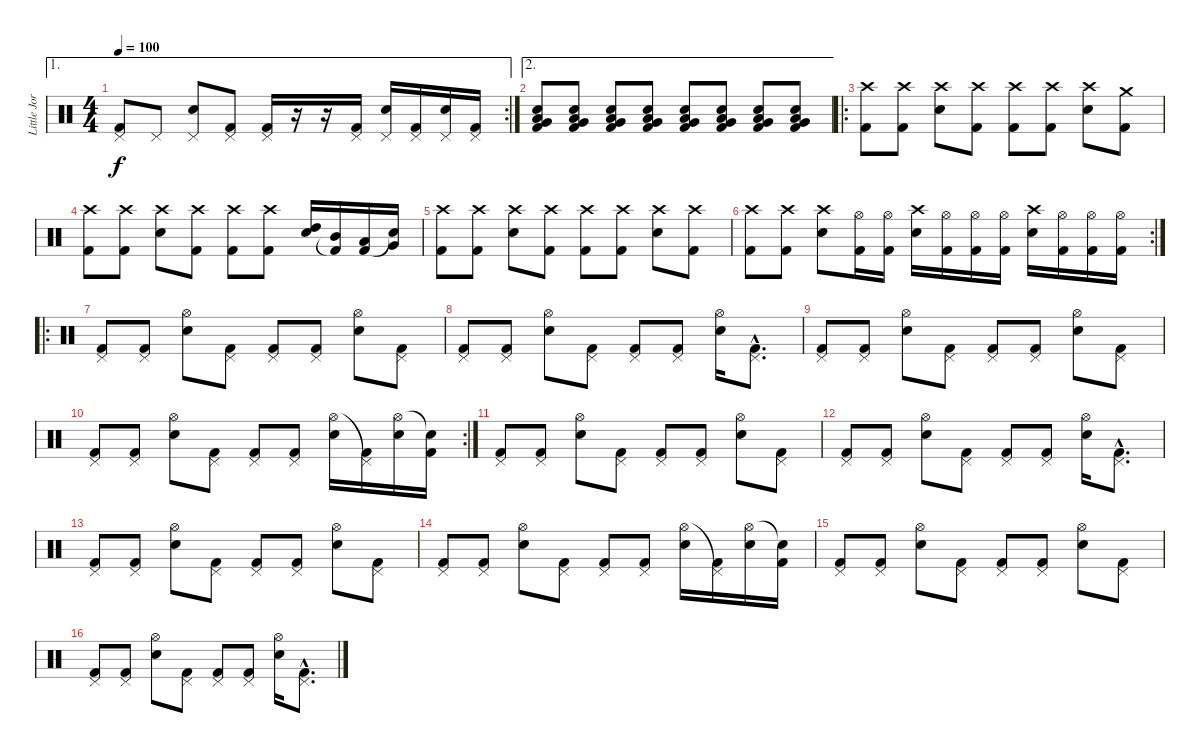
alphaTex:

\track ("Little JorDiSoN" "Little Jor") {instrument percussion}
\staff {score}
\articulation defaults
\ae 1
\rc 2
\ts (4 4)
\tempo 100
\clef neutral
\ks c
("Pedal Hi-Hat (hit)" "Kick (hit) 2").8{dy f} "Pedal Hi-Hat (hit)".8 ("Pedal Hi-Hat (hit)" "Electric Snare (hit)").8 ("Pedal Hi-Hat (hit)" "Kick (hit) 2").8 ("Pedal Hi-Hat (hit)" "Kick (hit) 2").16 r.16 r.16 ("Pedal Hi-Hat (hit)" "Kick (hit) 2").16 ("Pedal Hi-Hat (hit)" "Electric Snare (hit)").16 ("Pedal Hi-Hat (hit)" "Kick (hit) 2").16 ("Pedal Hi-Hat (hit)" "Electric Snare (hit)").16 ("Pedal Hi-Hat (hit)" "Kick (hit) 2").16 |
\ae 2
("Kick (hit) 2" "Very Low Tom (hit)" "Low Floor Tom (hit)" "Electric Snare (hit)").8 ("Kick (hit) 2" "Very Low Tom (hit)" "Low Floor Tom (hit)" "Electric Snare (hit)").8 ("Kick (hit) 2" "Very Low Tom (hit)" "Low Floor Tom (hit)" "Electric Snare (hit)").8 ("Kick (hit) 2" "Very Low Tom (hit)" "Low Floor Tom (hit)" "Electric Snare (hit)").8 ("Kick (hit) 2" "Very Low Tom (hit)" "Low Floor Tom (hit)" "Electric Snare (hit)").8 ("Kick (hit) 2" "Very Low Tom (hit)" "Low Floor Tom (hit)" "Electric Snare (hit)").8 ("Kick (hit) 2" "Very Low Tom (hit)" "Low Floor Tom (hit)" "Electric Snare (hit)").8 ("Kick (hit) 2" "Very Low Tom (hit)" "Low Floor Tom (hit)" "Electric Snare (hit)").8 |
\ro
("Crash high (hit)" "Kick (hit) 2").8 ("Crash high (hit)" "Kick (hit) 2").8 ("Crash high (hit)" "Electric Snare (hit)").8 ("Crash high (hit)" "Kick (hit) 2").8 ("Crash high (hit)" "Kick (hit) 2").8 ("Crash high (hit)" "Kick (hit) 2").8 ("Crash high (hit)" "Electric Snare (hit)").8 ("Crash medium (hit)" "Kick (hit) 2").8 |
("Crash high (hit)" "Kick (hit) 2").8 ("Crash high (hit)" "Kick (hit) 2").8 ("Crash high (hit)" "Electric Snare (hit)").8 ("Crash high (hit)" "Kick (hit) 2").8 ("Crash high (hit)" "Kick (hit) 2").8 ("Crash high (hit)" "Kick (hit) 2").8 ("High Tom (hit)" "Electric Snare (hit)").16 ("Mid Tom (hit)" "Kick (hit) 2"{t}).16 ("Low Tom (hit)" "Kick (hit) 2").16 ("Very Low Tom (hit)" "Snare (hit)"{t}).16 |
("Crash high (hit)" "Kick (hit) 2").8 ("Crash high (hit)" "Kick (hit) 2").8 ("Crash high (hit)" "Electric Snare (hit)").8 ("Crash high (hit)" "Kick (hit) 2").8 ("Crash high (hit)" "Kick (hit) 2").8 ("Crash high (hit)" "Kick (hit) 2").8 ("Crash high (hit)" "Electric Snare (hit)").8 ("Crash high (hit)" "Kick (hit) 2").8 |
\rc 2
("Crash high (hit)" "Kick (hit) 2").8 ("Crash high (hit)" "Kick (hit) 2").8 ("Crash high (hit)" "Electric Snare (hit)").8 ("Hi-Hat (open)" "Kick (hit) 2").16 ("Hi-Hat (open)" "Kick (hit) 2").16 ("Crash high (hit)" "Electric Snare (hit)").16 ("Hi-Hat (open)" "Kick (hit) 2").16 ("Hi-Hat (open)" "Kick (hit) 2").16 ("Hi-Hat (open)" "Kick (hit) 2").16 ("Crash high (hit)" "Electric Snare (hit)").16 ("Hi-Hat (open)" "Kick (hit) 2").16 ("Hi-Hat (open)" "Kick (hit) 2").16 ("Hi-Hat (open)" "Kick (hit) 2").16 |
\ro
("Pedal Hi-Hat (hit)" "Kick (hit) 2").8 ("Pedal Hi-Hat (hit)" "Kick (hit) 2").8 ("Hi-Hat (open)" "Electric Snare (hit)").8 ("Pedal Hi-Hat (hit)" "Kick (hit) 2").8 ("Pedal Hi-Hat (hit)" "Kick (hit) 2").8 ("Pedal Hi-Hat (hit)" "Kick (hit) 2").8 ("Hi-Hat (open)" "Electric Snare (hit)").8 ("Pedal Hi-Hat (hit)" "Kick (hit) 2").8 |
("Pedal Hi-Hat (hit)" "Kick (hit) 2").8 ("Pedal Hi-Hat (hit)" "Kick (hit) 2").8 ("Hi-Hat (open)" "Electric Snare (hit)").8 ("Pedal Hi-Hat (hit)" "Kick (hit) 2").8 ("Pedal Hi-Hat (hit)" "Kick (hit) 2").8 ("Pedal Hi-Hat (hit)" "Kick (hit) 2").8 ("Hi-Hat (open)" "Electric Snare (hit)").16 ("Pedal Hi-Hat (hit)"{hac} "Kick (hit) 2"{hac}).8{d} |
("Pedal Hi-Hat (hit)" "Kick (hit) 2").8 ("Pedal Hi-Hat (hit)" "Kick (hit) 2").8 ("Hi-Hat (open)" "Electric Snare (hit)").8 ("Pedal Hi-Hat (hit)" "Kick (hit) 2").8 ("Pedal Hi-Hat (hit)" "Kick (hit) 2").8 ("Pedal Hi-Hat (hit)" "Kick (hit) 2").8 ("Hi-Hat (open)" "Electric Snare (hit)").8 ("Pedal Hi-Hat (hit)" "Kick (hit) 2").8 |
\rc 2
("Pedal Hi-Hat (hit)" "Kick (hit) 2").8 ("Pedal Hi-Hat (hit)" "Kick (hit) 2").8 ("Hi-Hat (open)" "Electric Snare (hit)").8 ("Pedal Hi-Hat (hit)" "Kick (hit) 2").8 ("Pedal Hi-Hat (hit)" "Kick (hit) 2").8 ("Pedal Hi-Hat (hit)" "Kick (hit) 2").8 ("Hi-Hat (open)" "Electric Snare (hit)").16 ("Pedal Hi-Hat (hit)"{t} "Kick (hit) 2").16 ("Hi-Hat (open)" "Electric Snare (hit)").16 ("Snare (hit)"{t} "Kick (hit) 2").16 |
("Pedal Hi-Hat (hit)" "Kick (hit) 2").8 ("Pedal Hi-Hat (hit)" "Kick (hit) 2").8 ("Hi-Hat (open)" "Electric Snare (hit)").8 ("Pedal Hi-Hat (hit)" "Kick (hit) 2").8 ("Pedal Hi-Hat (hit)" "Kick (hit) 2").8 ("Pedal Hi-Hat (hit)" "Kick (hit) 2").8 ("Hi-Hat (open)" "Electric Snare (hit)").8 ("Pedal Hi-Hat (hit)" "Kick (hit) 2").8 |
("Pedal Hi-Hat (hit)" "Kick (hit) 2").8 ("Pedal Hi-Hat (hit)" "Kick (hit) 2").8 ("Hi-Hat (open)" "Electric Snare (hit)").8 ("Pedal Hi-Hat (hit)" "Kick (hit) 2").8 ("Pedal Hi-Hat (hit)" "Kick (hit) 2").8 ("Pedal Hi-Hat (hit)" "Kick (hit) 2").8 ("Hi-Hat (open)" "Electric Snare (hit)").16 ("Pedal Hi-Hat (hit)"{hac} "Kick (hit) 2"{hac}).8{d} |
("Pedal Hi-Hat (hit)" "Kick (hit) 2").8 ("Pedal Hi-Hat (hit)" "Kick (hit) 2").8 ("Hi-Hat (open)" "Electric Snare (hit)").8 ("Pedal Hi-Hat (hit)" "Kick (hit) 2").8 ("Pedal Hi-Hat (hit)" "Kick (hit) 2").8 ("Pedal Hi-Hat (hit)" "Kick (hit) 2").8 ("Hi-Hat (open)" "Electric Snare (hit)").8 ("Pedal Hi-Hat (hit)" "Kick (hit) 2").8 |
("Pedal Hi-Hat (hit)" "Kick (hit) 2").8 ("Pedal Hi-Hat (hit)" "Kick (hit) 2").8 ("Hi-Hat (open)" "Electric Snare (hit)").8 ("Pedal Hi-Hat (hit)" "Kick (hit) 2").8 ("Pedal Hi-Hat (hit)" "Kick (hit) 2").8 ("Pedal Hi-Hat (hit)" "Kick (hit) 2").8 ("Hi-Hat (open)" "Electric Snare (hit)").16 ("Pedal Hi-Hat (hit)"{t} "Kick (hit) 2").16 ("Hi-Hat (open)" "Electric Snare (hit)").16 ("Snare (hit)"{t} "Kick (hit) 2").16 |
("Pedal Hi-Hat (hit)" "Kick (hit) 2").8 ("Pedal Hi-Hat (hit)" "Kick (hit) 2").8 ("Hi-Hat (open)" "Electric Snare (hit)").8 ("Pedal Hi-Hat (hit)" "Kick (hit) 2").8 ("Pedal Hi-Hat (hit)" "Kick (hit) 2").8 ("Pedal Hi-Hat (hit)" "Kick (hit) 2").8 ("Hi-Hat (open)" "Electric Snare (hit)").8 ("Pedal Hi-Hat (hit)" "Kick (hit) 2").8 |
("Pedal Hi-Hat (hit)" "Kick (hit) 2").8 ("Pedal Hi-Hat (hit)" "Kick (hit) 2").8 ("Hi-Hat (open)" "Electric Snare (hit)").8 ("Pedal Hi-Hat (hit)" "Kick (hit) 2").8 ("Pedal Hi-Hat (hit)" "Kick (hit) 2").8 ("Pedal Hi-Hat (hit)" "Kick (hit) 2").8 ("Hi-Hat (open)" "Electric Snare (hit)").16 ("Pedal Hi-Hat (hit)"{hac} "Kick (hit) 2"{hac}).8{d}
